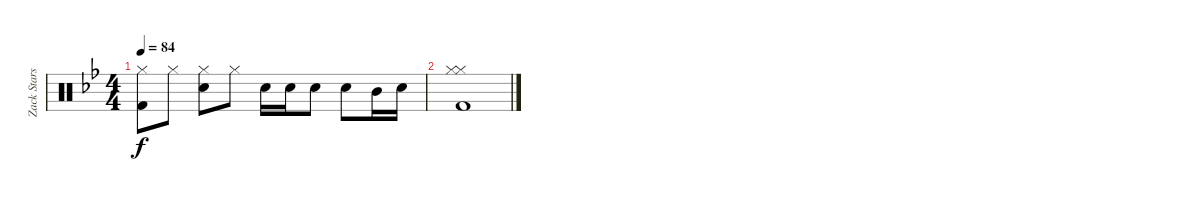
\track ("Zack Starskey" "Zack Stars") {instrument percussion}
\staff {score}
\articulation defaults
\ts (4 4)
\tempo 84
\clef neutral
\ks bb
("Hi-Hat (closed)" "Kick (hit) 2").8{dy f} "Hi-Hat (closed)".8 ("Hi-Hat (closed)" "Snare (hit) 2").8 "Hi-Hat (closed)".8 "Snare (hit) 2".16 "Snare (hit) 2".16 "Snare (hit) 2".8 "Snare (hit) 2".8 "Mid Tom (hit)".16 "Snare (hit) 2".16 |
("Hi-Hat (closed)" "Hi-Hat (closed)" "Kick (hit) 2").1
